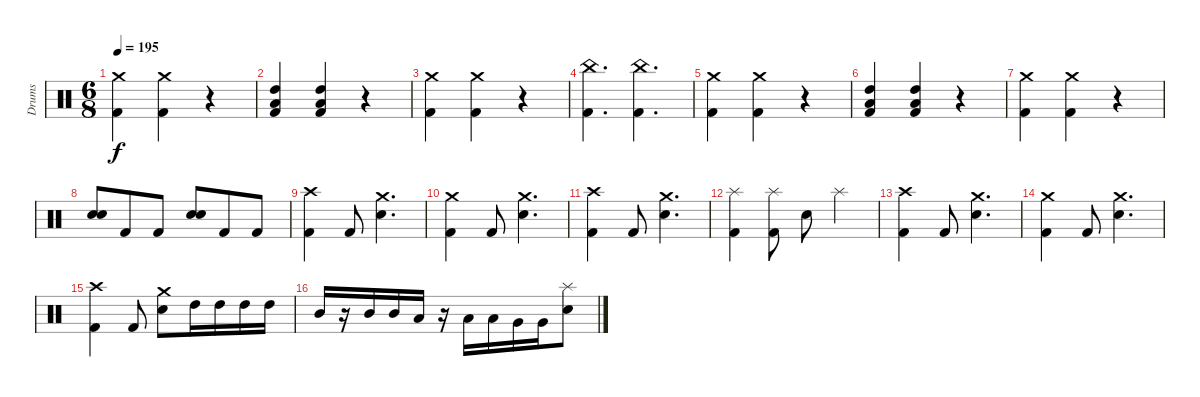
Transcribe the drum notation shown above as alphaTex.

\track ("Drums" "Drums") {instrument percussion}
\staff {score}
\articulation defaults
\ts (6 8)
\tempo 195
\clef neutral
\ks c
("Crash medium (hit)" "Kick (hit) 2").4{dy f} ("Crash medium (hit)" "Kick (hit) 2").4 r.4 |
("High Tom (hit)" "Low Tom (hit)" "Kick (hit) 2").4 ("High Tom (hit)" "Low Tom (hit)" "Kick (hit) 2").4 r.4 |
("Crash medium (hit)" "Kick (hit) 2").4 ("Crash medium (hit)" "Kick (hit) 2").4 r.4 |
("China (hit)" "Kick (hit) 2").4{d} ("China (hit)" "Kick (hit) 2").4{d} |
("Crash medium (hit)" "Kick (hit) 2").4 ("Crash medium (hit)" "Kick (hit) 2").4 r.4 |
("High Tom (hit)" "Low Tom (hit)" "Kick (hit) 2").4 ("High Tom (hit)" "Low Tom (hit)" "Kick (hit) 2").4 r.4 |
("Crash medium (hit)" "Kick (hit) 2").4 ("Crash medium (hit)" "Kick (hit) 2").4 r.4 |
("Electric Snare (hit)" "Electric Snare (hit)").8{bd 240} "Kick (hit) 2".8 "Kick (hit) 2".8 ("Electric Snare (hit)" "Electric Snare (hit)").8{bd 240} "Kick (hit) 2".8 "Kick (hit) 2".8 |
("Crash high (hit)" "Kick (hit) 2").4 "Kick (hit) 2".8 ("Crash medium (hit)" "Electric Snare (hit)").4{d} |
("Crash medium (hit)" "Kick (hit) 2").4 "Kick (hit) 2".8 ("Crash medium (hit)" "Electric Snare (hit)").4{d} |
("Crash high (hit)" "Kick (hit) 2").4 "Kick (hit) 2".8 ("Crash medium (hit)" "Electric Snare (hit)").4{d} |
("Splash (hit)" "Kick (hit) 2").4 ("Splash (hit)" "Kick (hit) 2").8 "Electric Snare (hit)".8 "Splash (hit)".4 |
("Crash high (hit)" "Kick (hit) 2").4 "Kick (hit) 2".8 ("Crash medium (hit)" "Electric Snare (hit)").4{d} |
("Crash medium (hit)" "Kick (hit) 2").4 "Kick (hit) 2".8 ("Crash medium (hit)" "Electric Snare (hit)").4{d} |
("Crash high (hit)" "Kick (hit) 2").4 "Kick (hit) 2".8 ("Crash medium (hit)" "Electric Snare (hit)").8 "High Tom (hit)".16 "High Tom (hit)".16 "High Tom (hit)".16 "High Tom (hit)".16 |
"Mid Tom (hit)".16 r.16 "Mid Tom (hit)".16 "Mid Tom (hit)".16 "Low Tom (hit)".16 r.16 "Low Tom (hit)".16 "Low Tom (hit)".16 "Very Low Tom (hit)".16 "Very Low Tom (hit)".16 ("Splash (hit)" "Electric Snare (hit)").8
